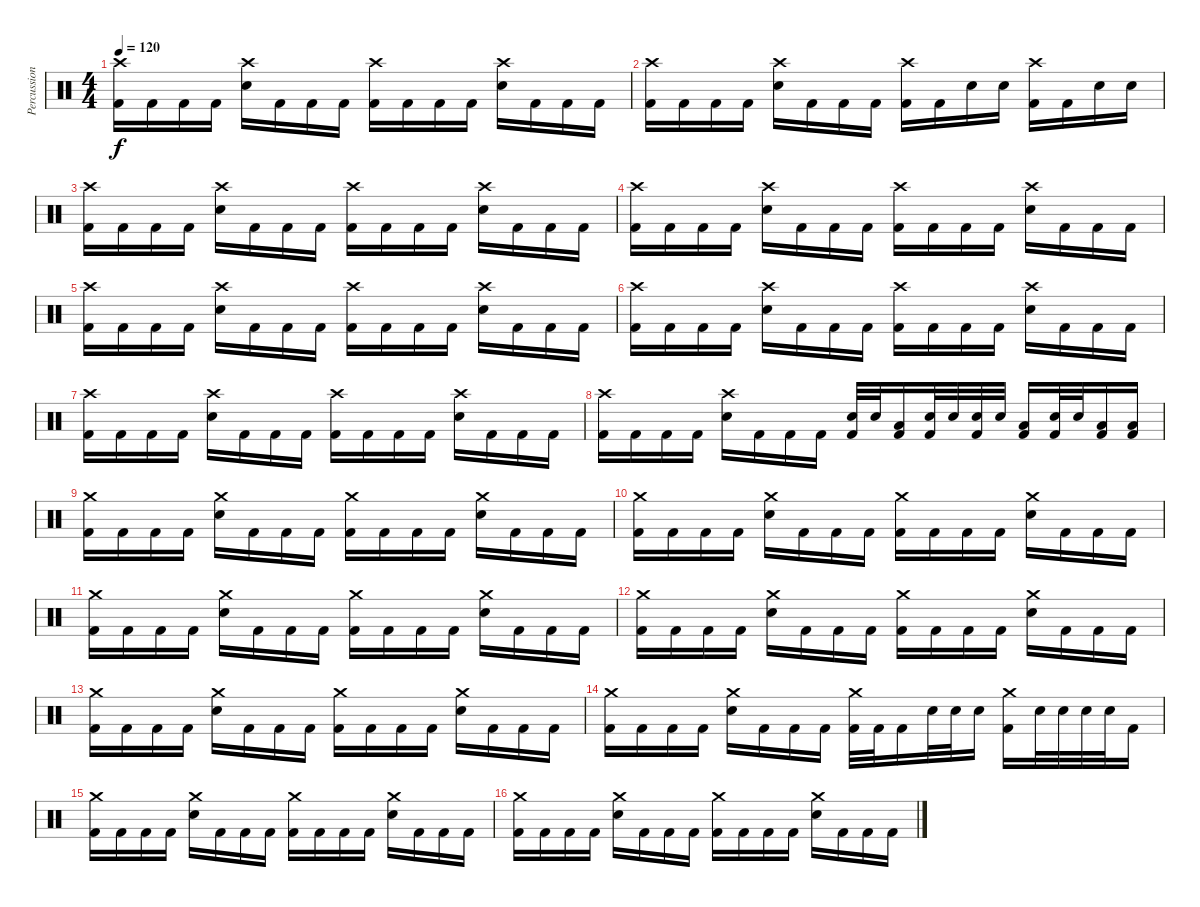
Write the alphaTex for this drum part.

\track ("Percussion" "Percussion") {instrument percussion}
\staff {score}
\articulation defaults
\ts (4 4)
\tempo 120
\clef neutral
\ks c
("Crash high (hit)" "Kick (hit) 2").16{dy f} "Kick (hit) 2".16 "Kick (hit) 2".16 "Kick (hit) 2".16 ("Crash high (hit)" "Electric Snare (hit)").16 "Kick (hit) 2".16 "Kick (hit) 2".16 "Kick (hit) 2".16 ("Crash high (hit)" "Kick (hit) 2").16 "Kick (hit) 2".16 "Kick (hit) 2".16 "Kick (hit) 2".16 ("Crash high (hit)" "Electric Snare (hit)").16 "Kick (hit) 2".16 "Kick (hit) 2".16 "Kick (hit) 2".16 |
("Crash high (hit)" "Kick (hit) 2").16 "Kick (hit) 2".16 "Kick (hit) 2".16 "Kick (hit) 2".16 ("Crash high (hit)" "Electric Snare (hit)").16 "Kick (hit) 2".16 "Kick (hit) 2".16 "Kick (hit) 2".16 ("Crash high (hit)" "Kick (hit) 2").16 "Kick (hit) 2".16 "Electric Snare (hit)".16 "Electric Snare (hit)".16 ("Crash high (hit)" "Kick (hit) 2").16 "Kick (hit) 2".16 "Electric Snare (hit)".16 "Electric Snare (hit)".16 |
("Crash high (hit)" "Kick (hit) 2").16 "Kick (hit) 2".16 "Kick (hit) 2".16 "Kick (hit) 2".16 ("Crash high (hit)" "Electric Snare (hit)").16 "Kick (hit) 2".16 "Kick (hit) 2".16 "Kick (hit) 2".16 ("Crash high (hit)" "Kick (hit) 2").16 "Kick (hit) 2".16 "Kick (hit) 2".16 "Kick (hit) 2".16 ("Crash high (hit)" "Electric Snare (hit)").16 "Kick (hit) 2".16 "Kick (hit) 2".16 "Kick (hit) 2".16 |
("Crash high (hit)" "Kick (hit) 2").16 "Kick (hit) 2".16 "Kick (hit) 2".16 "Kick (hit) 2".16 ("Crash high (hit)" "Electric Snare (hit)").16 "Kick (hit) 2".16 "Kick (hit) 2".16 "Kick (hit) 2".16 ("Crash high (hit)" "Kick (hit) 2").16 "Kick (hit) 2".16 "Kick (hit) 2".16 "Kick (hit) 2".16 ("Crash high (hit)" "Electric Snare (hit)").16 "Kick (hit) 2".16 "Kick (hit) 2".16 "Kick (hit) 2".16 |
("Crash high (hit)" "Kick (hit) 2").16 "Kick (hit) 2".16 "Kick (hit) 2".16 "Kick (hit) 2".16 ("Crash high (hit)" "Electric Snare (hit)").16 "Kick (hit) 2".16 "Kick (hit) 2".16 "Kick (hit) 2".16 ("Crash high (hit)" "Kick (hit) 2").16 "Kick (hit) 2".16 "Kick (hit) 2".16 "Kick (hit) 2".16 ("Crash high (hit)" "Electric Snare (hit)").16 "Kick (hit) 2".16 "Kick (hit) 2".16 "Kick (hit) 2".16 |
("Crash high (hit)" "Kick (hit) 2").16 "Kick (hit) 2".16 "Kick (hit) 2".16 "Kick (hit) 2".16 ("Crash high (hit)" "Electric Snare (hit)").16 "Kick (hit) 2".16 "Kick (hit) 2".16 "Kick (hit) 2".16 ("Crash high (hit)" "Kick (hit) 2").16 "Kick (hit) 2".16 "Kick (hit) 2".16 "Kick (hit) 2".16 ("Crash high (hit)" "Electric Snare (hit)").16 "Kick (hit) 2".16 "Kick (hit) 2".16 "Kick (hit) 2".16 |
("Crash high (hit)" "Kick (hit) 2").16 "Kick (hit) 2".16 "Kick (hit) 2".16 "Kick (hit) 2".16 ("Crash high (hit)" "Electric Snare (hit)").16 "Kick (hit) 2".16 "Kick (hit) 2".16 "Kick (hit) 2".16 ("Crash high (hit)" "Kick (hit) 2").16 "Kick (hit) 2".16 "Kick (hit) 2".16 "Kick (hit) 2".16 ("Crash high (hit)" "Electric Snare (hit)").16 "Kick (hit) 2".16 "Kick (hit) 2".16 "Kick (hit) 2".16 |
("Crash high (hit)" "Kick (hit) 2").16 "Kick (hit) 2".16 "Kick (hit) 2".16 "Kick (hit) 2".16 ("Crash high (hit)" "Electric Snare (hit)").16 "Kick (hit) 2".16 "Kick (hit) 2".16 "Kick (hit) 2".16 ("Electric Snare (hit)" "Kick (hit) 2").32 "Electric Snare (hit)".32 ("Low Tom (hit)" "Kick (hit) 2").16 ("Electric Snare (hit)" "Kick (hit) 2").32 "Electric Snare (hit)".32 ("Electric Snare (hit)" "Kick (hit) 2").32 "Electric Snare (hit)".32 ("Low Tom (hit)" "Kick (hit) 2").16 ("Electric Snare (hit)" "Kick (hit) 2").32 "Electric Snare (hit)".32 ("Low Tom (hit)" "Kick (hit) 2").16 ("Low Tom (hit)" "Kick (hit) 2").16 |
("Crash medium (hit)" "Kick (hit) 2").16 "Kick (hit) 2".16 "Kick (hit) 2".16 "Kick (hit) 2".16 ("Crash medium (hit)" "Electric Snare (hit)").16 "Kick (hit) 2".16 "Kick (hit) 2".16 "Kick (hit) 2".16 ("Crash medium (hit)" "Kick (hit) 2").16 "Kick (hit) 2".16 "Kick (hit) 2".16 "Kick (hit) 2".16 ("Crash medium (hit)" "Electric Snare (hit)").16 "Kick (hit) 2".16 "Kick (hit) 2".16 "Kick (hit) 2".16 |
("Crash medium (hit)" "Kick (hit) 2").16 "Kick (hit) 2".16 "Kick (hit) 2".16 "Kick (hit) 2".16 ("Crash medium (hit)" "Electric Snare (hit)").16 "Kick (hit) 2".16 "Kick (hit) 2".16 "Kick (hit) 2".16 ("Crash medium (hit)" "Kick (hit) 2").16 "Kick (hit) 2".16 "Kick (hit) 2".16 "Kick (hit) 2".16 ("Crash medium (hit)" "Electric Snare (hit)").16 "Kick (hit) 2".16 "Kick (hit) 2".16 "Kick (hit) 2".16 |
("Crash medium (hit)" "Kick (hit) 2").16 "Kick (hit) 2".16 "Kick (hit) 2".16 "Kick (hit) 2".16 ("Crash medium (hit)" "Electric Snare (hit)").16 "Kick (hit) 2".16 "Kick (hit) 2".16 "Kick (hit) 2".16 ("Crash medium (hit)" "Kick (hit) 2").16 "Kick (hit) 2".16 "Kick (hit) 2".16 "Kick (hit) 2".16 ("Crash medium (hit)" "Electric Snare (hit)").16 "Kick (hit) 2".16 "Kick (hit) 2".16 "Kick (hit) 2".16 |
("Crash medium (hit)" "Kick (hit) 2").16 "Kick (hit) 2".16 "Kick (hit) 2".16 "Kick (hit) 2".16 ("Crash medium (hit)" "Electric Snare (hit)").16 "Kick (hit) 2".16 "Kick (hit) 2".16 "Kick (hit) 2".16 ("Crash medium (hit)" "Kick (hit) 2").16 "Kick (hit) 2".16 "Kick (hit) 2".16 "Kick (hit) 2".16 ("Crash medium (hit)" "Electric Snare (hit)").16 "Kick (hit) 2".16 "Kick (hit) 2".16 "Kick (hit) 2".16 |
("Crash medium (hit)" "Kick (hit) 2").16 "Kick (hit) 2".16 "Kick (hit) 2".16 "Kick (hit) 2".16 ("Crash medium (hit)" "Electric Snare (hit)").16 "Kick (hit) 2".16 "Kick (hit) 2".16 "Kick (hit) 2".16 ("Crash medium (hit)" "Kick (hit) 2").16 "Kick (hit) 2".16 "Kick (hit) 2".16 "Kick (hit) 2".16 ("Crash medium (hit)" "Electric Snare (hit)").16 "Kick (hit) 2".16 "Kick (hit) 2".16 "Kick (hit) 2".16 |
("Crash medium (hit)" "Kick (hit) 2").16 "Kick (hit) 2".16 "Kick (hit) 2".16 "Kick (hit) 2".16 ("Crash medium (hit)" "Electric Snare (hit)").16 "Kick (hit) 2".16 "Kick (hit) 2".16 "Kick (hit) 2".16 ("Crash medium (hit)" "Kick (hit) 2").32 "Kick (hit) 2".32 "Kick (hit) 2".16 "Electric Snare (hit)".32 "Electric Snare (hit)".32 "Electric Snare (hit)".16 ("Crash medium (hit)" "Kick (hit) 2").16 "Electric Snare (hit)".32 "Electric Snare (hit)".32 "Electric Snare (hit)".32 "Electric Snare (hit)".32 "Kick (hit) 2".16 |
("Crash medium (hit)" "Kick (hit) 2").16 "Kick (hit) 2".16 "Kick (hit) 2".16 "Kick (hit) 2".16 ("Crash medium (hit)" "Electric Snare (hit)").16 "Kick (hit) 2".16 "Kick (hit) 2".16 "Kick (hit) 2".16 ("Crash medium (hit)" "Kick (hit) 2").16 "Kick (hit) 2".16 "Kick (hit) 2".16 "Kick (hit) 2".16 ("Crash medium (hit)" "Electric Snare (hit)").16 "Kick (hit) 2".16 "Kick (hit) 2".16 "Kick (hit) 2".16 |
("Crash medium (hit)" "Kick (hit) 2").16 "Kick (hit) 2".16 "Kick (hit) 2".16 "Kick (hit) 2".16 ("Crash medium (hit)" "Electric Snare (hit)").16 "Kick (hit) 2".16 "Kick (hit) 2".16 "Kick (hit) 2".16 ("Crash medium (hit)" "Kick (hit) 2").16 "Kick (hit) 2".16 "Kick (hit) 2".16 "Kick (hit) 2".16 ("Crash medium (hit)" "Electric Snare (hit)").16 "Kick (hit) 2".16 "Kick (hit) 2".16 "Kick (hit) 2".16
